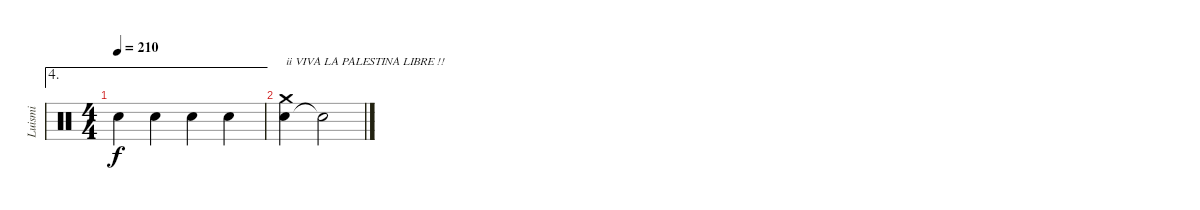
\track ("Luismi" "Luismi") {instrument percussion}
\staff {score}
\articulation defaults
\ae 4
\ts (4 4)
\tempo 210
\clef neutral
\ks c "Snare (hit) 2".4{dy f} "Electric Snare (hit)".4 "Snare (hit) 2".4 "Electric Snare (hit)".4
|
("Electric Snare (hit)" "Crash medium (hit)").4{txt "ii VIVA LA PALESTINA LIBRE !!"} "Snare (hit)"{t}.2
